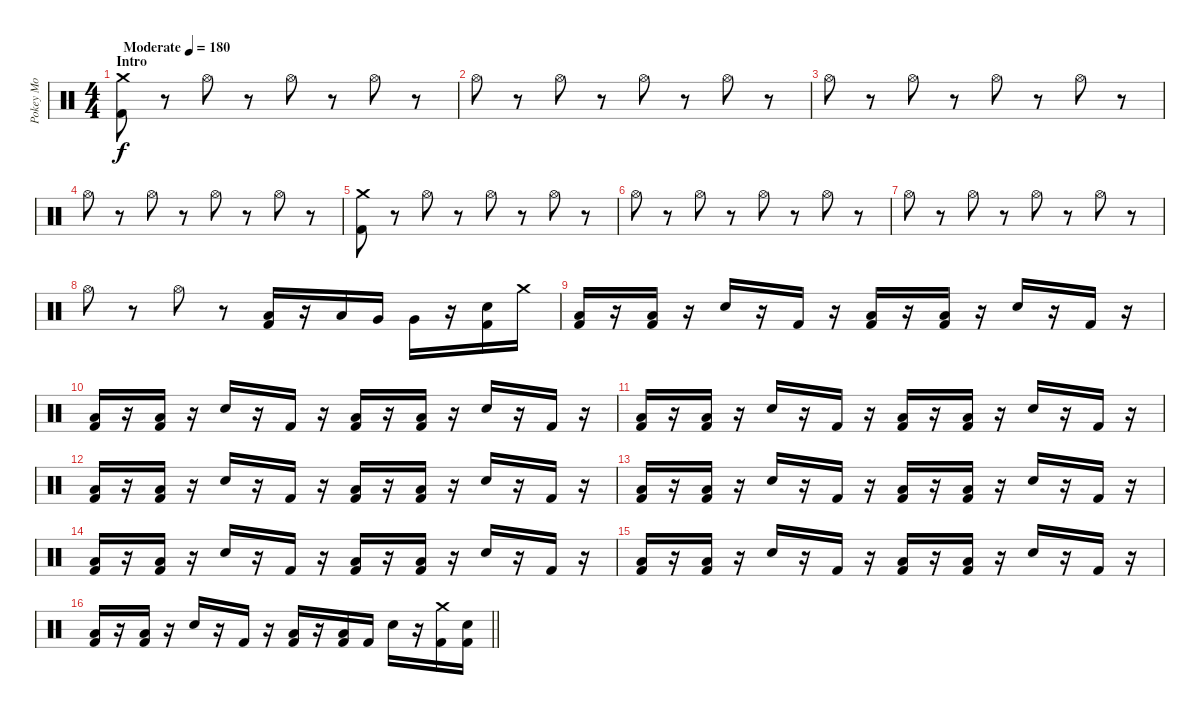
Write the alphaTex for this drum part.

\track ("Pokey Mo" "Pokey Mo") {instrument percussion}
\staff {score}
\articulation defaults
\ts (4 4)
\section ("" "Intro")
\tempo (180 "Moderate")
\clef neutral
\ks c
("Crash medium (hit)" "Kick (hit) 2").8{dy f} r.8 "Hi-Hat (open)".8 r.8 "Hi-Hat (open)".8 r.8 "Hi-Hat (open)".8 r.8 |
"Hi-Hat (open)".8 r.8 "Hi-Hat (open)".8 r.8 "Hi-Hat (open)".8 r.8 "Hi-Hat (open)".8 r.8 |
"Hi-Hat (open)".8 r.8 "Hi-Hat (open)".8 r.8 "Hi-Hat (open)".8 r.8 "Hi-Hat (open)".8 r.8 |
"Hi-Hat (open)".8 r.8 "Hi-Hat (open)".8 r.8 "Hi-Hat (open)".8 r.8 "Hi-Hat (open)".8 r.8 |
("Crash medium (hit)" "Kick (hit) 2").8 r.8 "Hi-Hat (open)".8 r.8 "Hi-Hat (open)".8 r.8 "Hi-Hat (open)".8 r.8 |
"Hi-Hat (open)".8 r.8 "Hi-Hat (open)".8 r.8 "Hi-Hat (open)".8 r.8 "Hi-Hat (open)".8 r.8 |
"Hi-Hat (open)".8 r.8 "Hi-Hat (open)".8 r.8 "Hi-Hat (open)".8 r.8 "Hi-Hat (open)".8 r.8 |
"Hi-Hat (open)".8 r.8 "Hi-Hat (open)".8 r.8 ("Low Tom (hit)" "Kick (hit) 2").16 r.16 "Low Tom (hit)".16 "Very Low Tom (hit)".16 "Very Low Tom (hit)".16 r.16 ("Electric Snare (hit)" "Kick (hit) 2").16 "Crash medium (hit)".16 |
("Low Tom (hit)" "Kick (hit) 2").16 r.16 ("Low Tom (hit)" "Kick (hit) 2").16 r.16 "Electric Snare (hit)".16 r.16 "Kick (hit) 2".16 r.16 ("Low Tom (hit)" "Kick (hit) 2").16 r.16 ("Low Tom (hit)" "Kick (hit) 2").16 r.16 "Electric Snare (hit)".16 r.16 "Kick (hit) 2".16 r.16 |
("Low Tom (hit)" "Kick (hit) 2").16 r.16 ("Low Tom (hit)" "Kick (hit) 2").16 r.16 "Electric Snare (hit)".16 r.16 "Kick (hit) 2".16 r.16 ("Low Tom (hit)" "Kick (hit) 2").16 r.16 ("Low Tom (hit)" "Kick (hit) 2").16 r.16 "Electric Snare (hit)".16 r.16 "Kick (hit) 2".16 r.16 |
("Low Tom (hit)" "Kick (hit) 2").16 r.16 ("Low Tom (hit)" "Kick (hit) 2").16 r.16 "Electric Snare (hit)".16 r.16 "Kick (hit) 2".16 r.16 ("Low Tom (hit)" "Kick (hit) 2").16 r.16 ("Low Tom (hit)" "Kick (hit) 2").16 r.16 "Electric Snare (hit)".16 r.16 "Kick (hit) 2".16 r.16 |
("Low Tom (hit)" "Kick (hit) 2").16 r.16 ("Low Tom (hit)" "Kick (hit) 2").16 r.16 "Electric Snare (hit)".16 r.16 "Kick (hit) 2".16 r.16 ("Low Tom (hit)" "Kick (hit) 2").16 r.16 ("Low Tom (hit)" "Kick (hit) 2").16 r.16 "Electric Snare (hit)".16 r.16 "Kick (hit) 2".16 r.16 |
("Low Tom (hit)" "Kick (hit) 2").16 r.16 ("Low Tom (hit)" "Kick (hit) 2").16 r.16 "Electric Snare (hit)".16 r.16 "Kick (hit) 2".16 r.16 ("Low Tom (hit)" "Kick (hit) 2").16 r.16 ("Low Tom (hit)" "Kick (hit) 2").16 r.16 "Electric Snare (hit)".16 r.16 "Kick (hit) 2".16 r.16 |
("Low Tom (hit)" "Kick (hit) 2").16 r.16 ("Low Tom (hit)" "Kick (hit) 2").16 r.16 "Electric Snare (hit)".16 r.16 "Kick (hit) 2".16 r.16 ("Low Tom (hit)" "Kick (hit) 2").16 r.16 ("Low Tom (hit)" "Kick (hit) 2").16 r.16 "Electric Snare (hit)".16 r.16 "Kick (hit) 2".16 r.16 |
("Low Tom (hit)" "Kick (hit) 2").16 r.16 ("Low Tom (hit)" "Kick (hit) 2").16 r.16 "Electric Snare (hit)".16 r.16 "Kick (hit) 2".16 r.16 ("Low Tom (hit)" "Kick (hit) 2").16 r.16 ("Low Tom (hit)" "Kick (hit) 2").16 r.16 "Electric Snare (hit)".16 r.16 "Kick (hit) 2".16 r.16 |
\barLineRight lightlight
("Low Tom (hit)" "Kick (hit) 2").16 r.16 ("Low Tom (hit)" "Kick (hit) 2").16 r.16 "Electric Snare (hit)".16 r.16 "Kick (hit) 2".16 r.16 ("Low Tom (hit)" "Kick (hit) 2").16 r.16 ("Low Tom (hit)" "Kick (hit) 2").16 "Kick (hit) 2".16 "Electric Snare (hit)".16 r.16 ("Crash medium (hit)" "Kick (hit) 2").16 ("Electric Snare (hit)" "Kick (hit) 2").16
